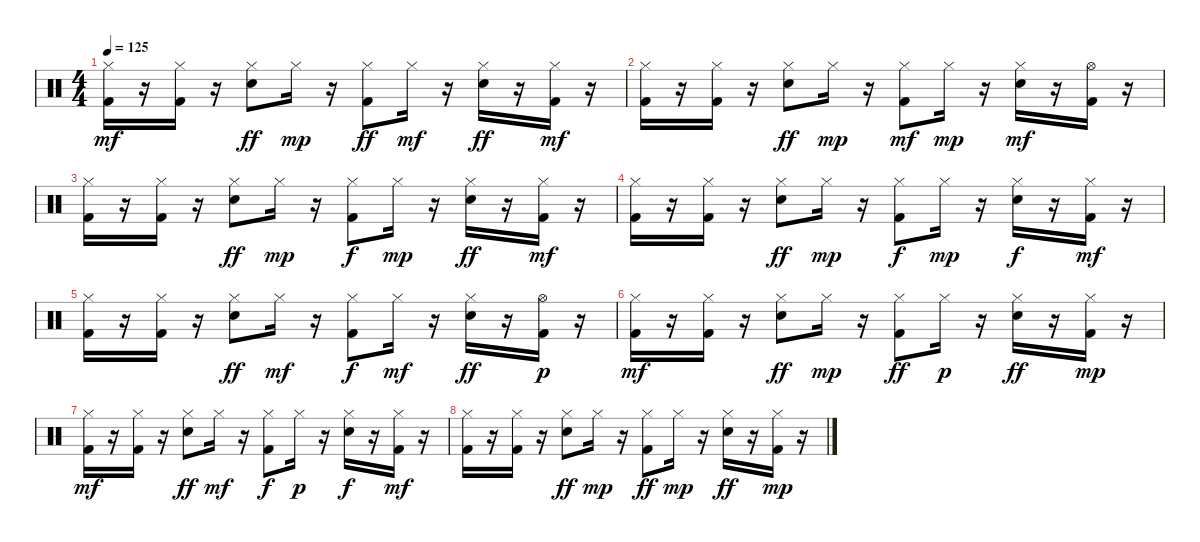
\track "" {instrument percussion}
\staff {score}
\articulation defaults
\ts (4 4)
\tempo 125
\clef neutral
\ks c
("Hi-Hat (closed)" "Kick (hit) 2").16{dy mf} r.16 ("Hi-Hat (closed)" "Kick (hit) 2").16 r.16 ("Hi-Hat (closed)" "Snare (hit) 2").8{dy ff} "Hi-Hat (closed)".16{dy mp} r.16 ("Hi-Hat (closed)" "Kick (hit) 2").8{dy ff} "Hi-Hat (closed)".16{dy mf} r.16 ("Snare (hit) 2" "Hi-Hat (closed)").16{dy ff} r.16 ("Kick (hit) 2" "Hi-Hat (closed)").16{dy mf} r.16 |
("Hi-Hat (closed)" "Kick (hit) 2").16 r.16 ("Kick (hit) 2" "Hi-Hat (closed)").16 r.16 ("Hi-Hat (closed)" "Snare (hit) 2").8{dy ff} "Hi-Hat (closed)".16{dy mp} r.16 ("Kick (hit) 2" "Hi-Hat (closed)").8{dy mf} "Hi-Hat (closed)".16{dy mp} r.16 ("Snare (hit) 2" "Hi-Hat (closed)").16{dy mf} r.16 ("Hi-Hat (open)" "Kick (hit) 2").16 r.16 |
("Hi-Hat (closed)" "Kick (hit) 2").16{volume 14} r.16 ("Hi-Hat (closed)" "Kick (hit) 2").16{volume 14} r.16 ("Snare (hit) 2" "Hi-Hat (closed)").8{dy ff volume 14} "Hi-Hat (closed)".16{dy mp volume 13} r.16 ("Hi-Hat (closed)" "Kick (hit) 2").8{dy f volume 13} "Hi-Hat (closed)".16{dy mp volume 13} r.16 ("Hi-Hat (closed)" "Snare (hit) 2").16{dy ff volume 12} r.16 ("Hi-Hat (closed)" "Kick (hit) 2").16{dy mf volume 12} r.16 |
("Hi-Hat (closed)" "Kick (hit) 2").16{volume 12} r.16 ("Hi-Hat (closed)" "Kick (hit) 2").16{volume 12} r.16 ("Hi-Hat (closed)" "Snare (hit) 2").8{dy ff volume 11} "Hi-Hat (closed)".16{dy mp volume 11} r.16 ("Hi-Hat (closed)" "Kick (hit) 2").8{dy f volume 11} "Hi-Hat (closed)".16{dy mp volume 10} r.16 ("Snare (hit) 2" "Hi-Hat (closed)").16{dy f volume 10} r.16 ("Kick (hit) 2" "Hi-Hat (closed)").16{dy mf volume 10} r.16 |
("Hi-Hat (closed)" "Kick (hit) 2").16{volume 10} r.16 ("Kick (hit) 2" "Hi-Hat (closed)").16{volume 9} r.16 ("Snare (hit) 2" "Hi-Hat (closed)").8{dy ff volume 9} "Hi-Hat (closed)".16{dy mf volume 9} r.16 ("Kick (hit) 2" "Hi-Hat (closed)").8{dy f volume 8} "Hi-Hat (closed)".16{dy mf volume 8} r.16 ("Hi-Hat (closed)" "Snare (hit) 2").16{dy ff volume 8} r.16 ("Kick (hit) 2" "Hi-Hat (open)").16{dy p volume 8} r.16 |
("Hi-Hat (closed)" "Kick (hit) 2").16{dy mf volume 7} r.16 ("Kick (hit) 2" "Hi-Hat (closed)").16{volume 7} r.16 ("Hi-Hat (closed)" "Snare (hit) 2").8{dy ff volume 7} "Hi-Hat (closed)".16{dy mp volume 6} r.16 ("Kick (hit) 2" "Hi-Hat (closed)").8{dy ff volume 6} "Hi-Hat (closed)".16{dy p volume 6} r.16 ("Hi-Hat (closed)" "Snare (hit) 2").16{dy ff volume 6} r.16 ("Hi-Hat (closed)" "Kick (hit) 2").16{dy mp volume 5} r.16 |
("Hi-Hat (closed)" "Kick (hit) 2").16{dy mf volume 5} r.16 ("Hi-Hat (closed)" "Kick (hit) 2").16{volume 5} r.16 ("Snare (hit) 2" "Hi-Hat (closed)").8{dy ff volume 4} "Hi-Hat (closed)".16{dy mf volume 4} r.16 ("Kick (hit) 2" "Hi-Hat (closed)").8{dy f volume 4} "Hi-Hat (closed)".16{dy p volume 4} r.16 ("Snare (hit) 2" "Hi-Hat (closed)").16{dy f volume 3} r.16 ("Hi-Hat (closed)" "Kick (hit) 2").16{dy mf volume 3} r.16 |
("Hi-Hat (closed)" "Kick (hit) 2").16{volume 3} r.16 ("Hi-Hat (closed)" "Kick (hit) 2").16{volume 2} r.16 ("Snare (hit) 2" "Hi-Hat (closed)").8{dy ff volume 2} "Hi-Hat (closed)".16{dy mp volume 2} r.16 ("Kick (hit) 2" "Hi-Hat (closed)").8{dy ff volume 1} "Hi-Hat (closed)".16{dy mp volume 1} r.16 ("Snare (hit) 2" "Hi-Hat (closed)").16{dy ff volume 1} r.16 ("Hi-Hat (closed)" "Kick (hit) 2").16{dy mp volume 0} r.16
